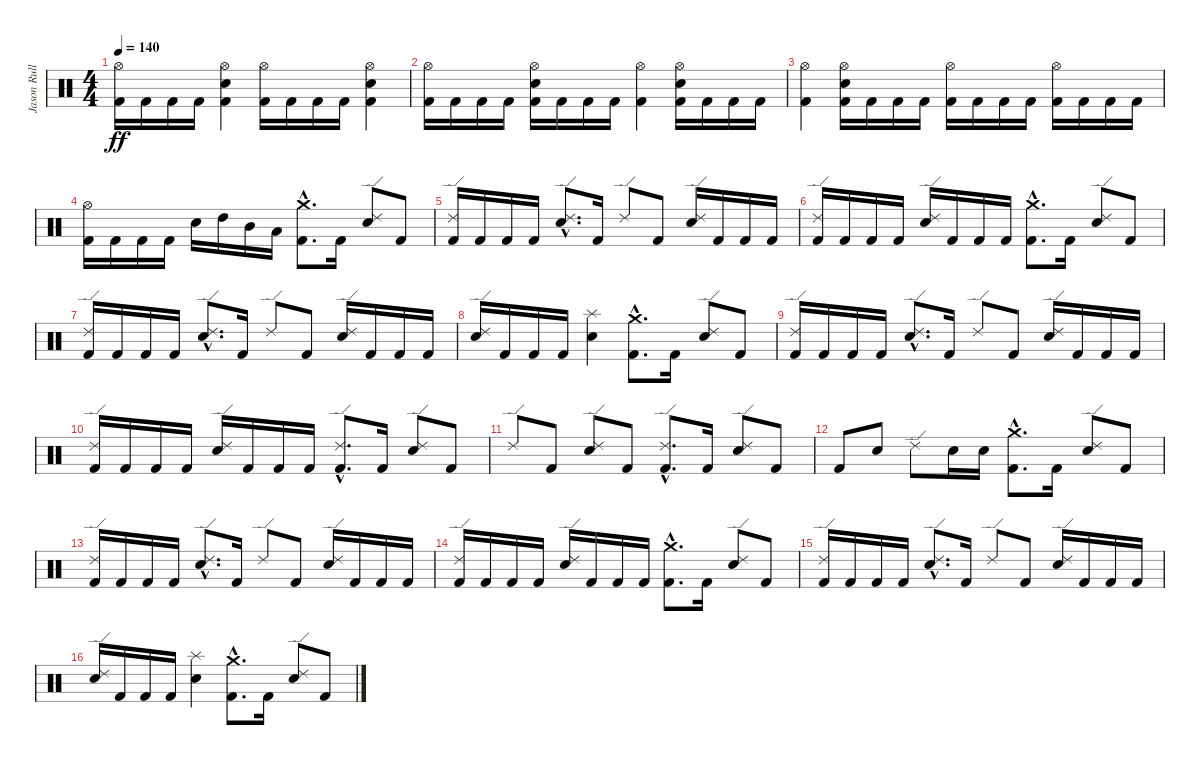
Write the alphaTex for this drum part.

\track ("Jason Rullo" "Jason Rull") {instrument percussion}
\staff {score}
\articulation defaults
\ts (4 4)
\tempo 140
\clef neutral
\ks c
("Hi-Hat (open)" "Kick (hit) 2").16{dy ff} "Kick (hit) 2".16 "Kick (hit) 2".16 "Kick (hit) 2".16 ("Electric Snare (hit)" "Hi-Hat (open)" "Kick (hit) 2").4 ("Hi-Hat (open)" "Kick (hit) 2").16 "Kick (hit) 2".16 "Kick (hit) 2".16 "Kick (hit) 2".16 ("Electric Snare (hit)" "Hi-Hat (open)" "Kick (hit) 2").4 |
("Hi-Hat (open)" "Kick (hit) 2").16 "Kick (hit) 2".16 "Kick (hit) 2".16 "Kick (hit) 2".16 ("Electric Snare (hit)" "Hi-Hat (open)" "Kick (hit) 2").16 "Kick (hit) 2".16 "Kick (hit) 2".16 "Kick (hit) 2".16 ("Hi-Hat (open)" "Kick (hit) 2").4 ("Electric Snare (hit)" "Hi-Hat (open)" "Kick (hit) 2").16 "Kick (hit) 2".16 "Kick (hit) 2".16 "Kick (hit) 2".16 |
("Hi-Hat (open)" "Kick (hit) 2").4 ("Electric Snare (hit)" "Hi-Hat (open)" "Kick (hit) 2").16 "Kick (hit) 2".16 "Kick (hit) 2".16 "Kick (hit) 2".16 ("Hi-Hat (open)" "Kick (hit) 2").16 "Kick (hit) 2".16 "Kick (hit) 2".16 "Kick (hit) 2".16 ("Hi-Hat (open)" "Kick (hit) 2").16 "Kick (hit) 2".16 "Kick (hit) 2".16 "Kick (hit) 2".16 |
("Hi-Hat (open)" "Kick (hit) 2").16 "Kick (hit) 2".16 "Kick (hit) 2".16 "Kick (hit) 2".16 "Electric Snare (hit)".16 "High Tom (hit)".16 "Mid Tom (hit)".16 "Low Tom (hit)".16 ("Crash medium (hit)"{hac} "Kick (hit) 2"{hac}).8{d} "Kick (hit) 2".16 ("Electric Snare (hit)" "Ride (edge) 2").8 "Kick (hit) 2".8 |
("Ride (edge) 2" "Kick (hit) 2").16 "Kick (hit) 2".16 "Kick (hit) 2".16 "Kick (hit) 2".16 ("Electric Snare (hit)"{hac} "Ride (edge) 2"{hac}).8{d} "Kick (hit) 2".16 "Ride (edge) 2".8 "Kick (hit) 2".8 ("Electric Snare (hit)" "Ride (edge) 2").16 "Kick (hit) 2".16 "Kick (hit) 2".16 "Kick (hit) 2".16 |
("Ride (edge) 2" "Kick (hit) 2").16 "Kick (hit) 2".16 "Kick (hit) 2".16 "Kick (hit) 2".16 ("Electric Snare (hit)" "Ride (edge) 2").16 "Kick (hit) 2".16 "Kick (hit) 2".16 "Kick (hit) 2".16 ("Crash medium (hit)"{hac} "Kick (hit) 2"{hac}).8{d} "Kick (hit) 2".16 ("Electric Snare (hit)" "Ride (edge) 2").8 "Kick (hit) 2".8 |
("Ride (edge) 2" "Kick (hit) 2").16 "Kick (hit) 2".16 "Kick (hit) 2".16 "Kick (hit) 2".16 ("Electric Snare (hit)"{hac} "Ride (edge) 2"{hac}).8{d} "Kick (hit) 2".16 "Ride (edge) 2".8 "Kick (hit) 2".8 ("Electric Snare (hit)" "Ride (edge) 2").16 "Kick (hit) 2".16 "Kick (hit) 2".16 "Kick (hit) 2".16 |
("Electric Snare (hit)" "Ride (edge) 2").16 "Kick (hit) 2".16 "Kick (hit) 2".16 "Kick (hit) 2".16 ("Electric Snare (hit)" "Splash (hit)").4 ("Crash medium (hit)"{hac} "Kick (hit) 2"{hac}).8{d} "Kick (hit) 2".16 ("Electric Snare (hit)" "Ride (edge) 2").8 "Kick (hit) 2".8 |
("Ride (edge) 2" "Kick (hit) 2").16 "Kick (hit) 2".16 "Kick (hit) 2".16 "Kick (hit) 2".16 ("Electric Snare (hit)"{hac} "Ride (edge) 2"{hac}).8{d} "Kick (hit) 2".16 "Ride (edge) 2".8 "Kick (hit) 2".8 ("Electric Snare (hit)" "Ride (edge) 2").16 "Kick (hit) 2".16 "Kick (hit) 2".16 "Kick (hit) 2".16 |
("Ride (edge) 2" "Kick (hit) 2").16 "Kick (hit) 2".16 "Kick (hit) 2".16 "Kick (hit) 2".16 ("Electric Snare (hit)" "Ride (edge) 2").16 "Kick (hit) 2".16 "Kick (hit) 2".16 "Kick (hit) 2".16 ("Kick (hit) 2"{hac} "Ride (edge) 2"{hac}).8{d} "Kick (hit) 2".16 ("Electric Snare (hit)" "Ride (edge) 2").8 "Kick (hit) 2".8 |
"Ride (edge) 2".8 "Kick (hit) 2".8 ("Electric Snare (hit)" "Ride (edge) 2").8 "Kick (hit) 2".8 ("Kick (hit) 2"{hac} "Ride (edge) 2"{hac}).8{d} "Kick (hit) 2".16 ("Electric Snare (hit)" "Ride (edge) 2").8 "Kick (hit) 2".8 |
"Kick (hit) 2".8 "Electric Snare (hit)".8 "Ride (edge) 2".8 "Electric Snare (hit)".16 "Electric Snare (hit)".16 ("Crash medium (hit)"{hac} "Kick (hit) 2"{hac}).8{d} "Kick (hit) 2".16 ("Electric Snare (hit)" "Ride (edge) 2").8 "Kick (hit) 2".8 |
("Ride (edge) 2" "Kick (hit) 2").16 "Kick (hit) 2".16 "Kick (hit) 2".16 "Kick (hit) 2".16 ("Electric Snare (hit)"{hac} "Ride (edge) 2"{hac}).8{d} "Kick (hit) 2".16 "Ride (edge) 2".8 "Kick (hit) 2".8 ("Electric Snare (hit)" "Ride (edge) 2").16 "Kick (hit) 2".16 "Kick (hit) 2".16 "Kick (hit) 2".16 |
("Ride (edge) 2" "Kick (hit) 2").16 "Kick (hit) 2".16 "Kick (hit) 2".16 "Kick (hit) 2".16 ("Electric Snare (hit)" "Ride (edge) 2").16 "Kick (hit) 2".16 "Kick (hit) 2".16 "Kick (hit) 2".16 ("Crash medium (hit)"{hac} "Kick (hit) 2"{hac}).8{d} "Kick (hit) 2".16 ("Electric Snare (hit)" "Ride (edge) 2").8 "Kick (hit) 2".8 |
("Ride (edge) 2" "Kick (hit) 2").16 "Kick (hit) 2".16 "Kick (hit) 2".16 "Kick (hit) 2".16 ("Electric Snare (hit)"{hac} "Ride (edge) 2"{hac}).8{d} "Kick (hit) 2".16 "Ride (edge) 2".8 "Kick (hit) 2".8 ("Electric Snare (hit)" "Ride (edge) 2").16 "Kick (hit) 2".16 "Kick (hit) 2".16 "Kick (hit) 2".16 |
("Electric Snare (hit)" "Ride (edge) 2").16 "Kick (hit) 2".16 "Kick (hit) 2".16 "Kick (hit) 2".16 ("Electric Snare (hit)" "Splash (hit)").4 ("Crash medium (hit)"{hac} "Kick (hit) 2"{hac}).8{d} "Kick (hit) 2".16 ("Electric Snare (hit)" "Ride (edge) 2").8 "Kick (hit) 2".8
